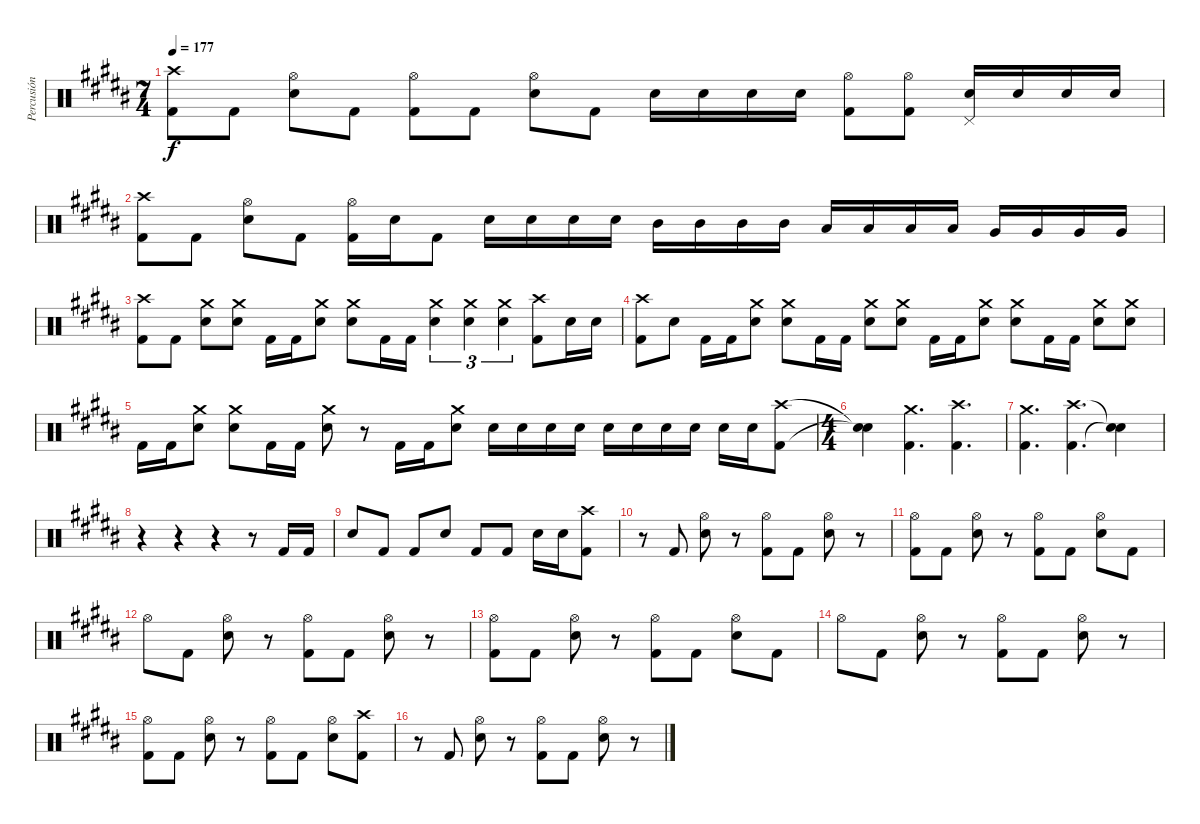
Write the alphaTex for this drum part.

\track ("Percusión" "Percusión") {instrument percussion}
\staff {score}
\articulation defaults
\ts (7 4)
\tempo 177
\clef neutral
\ks g#minor
("Kick (hit) 2" "Crash high (hit)").8{dy f} "Kick (hit) 2".8 ("Snare (hit) 2" "Hi-Hat (open)").8 "Kick (hit) 2".8 ("Kick (hit) 2" "Hi-Hat (open)").8 "Kick (hit) 2".8 ("Snare (hit) 2" "Hi-Hat (open)").8 "Kick (hit) 2".8 "Snare (hit) 2".16 "Snare (hit) 2".16 "Snare (hit) 2".16 "Snare (hit) 2".16 ("Kick (hit) 2" "Hi-Hat (open)").8 ("Kick (hit) 2" "Hi-Hat (open)").8 ("Snare (hit) 2" "Pedal Hi-Hat (hit)").16 "Snare (hit) 2".16 "Snare (hit) 2".16 "Snare (hit) 2".16 |
("Kick (hit) 2" "Crash high (hit)").8 "Kick (hit) 2".8 ("Snare (hit) 2" "Hi-Hat (open)").8 "Kick (hit) 2".8 ("Kick (hit) 2" "Hi-Hat (open)").16 "Snare (hit) 2".16 "Kick (hit) 2".8 "Snare (hit) 2".16 "Snare (hit) 2".16 "Snare (hit) 2".16 "Snare (hit) 2".16 "Mid Tom (hit)".16 "Mid Tom (hit)".16 "Mid Tom (hit)".16 "Mid Tom (hit)".16 "Low Tom (hit)".16 "Low Tom (hit)".16 "Low Tom (hit)".16 "Low Tom (hit)".16 "Very Low Tom (hit)".16 "Very Low Tom (hit)".16 "Very Low Tom (hit)".16 "Very Low Tom (hit)".16 |
("Kick (hit) 2" "Crash high (hit)").8 "Kick (hit) 2".8 ("Snare (hit) 2" "Crash medium (hit)").8 ("Snare (hit) 2" "Crash medium (hit)").8 "Kick (hit) 2".16 "Kick (hit) 2".16 ("Snare (hit) 2" "Crash medium (hit)").8 ("Snare (hit) 2" "Crash medium (hit)").8 "Kick (hit) 2".16 "Kick (hit) 2".16 ("Snare (hit) 2" "Crash medium (hit)").4{tu (3 2)} ("Snare (hit) 2" "Crash medium (hit)").4{tu (3 2)} ("Snare (hit) 2" "Crash medium (hit)").4{tu (3 2)} ("Kick (hit) 2" "Crash high (hit)").8 "Snare (hit) 2".16 "Snare (hit) 2".16 |
("Kick (hit) 2" "Crash high (hit)").8 "Snare (hit) 2".8 "Kick (hit) 2".16 "Kick (hit) 2".16 ("Snare (hit) 2" "Crash medium (hit)").8 ("Snare (hit) 2" "Crash medium (hit)").8 "Kick (hit) 2".16 "Kick (hit) 2".16 ("Snare (hit) 2" "Crash medium (hit)").8 ("Snare (hit) 2" "Crash medium (hit)").8 "Kick (hit) 2".16 "Kick (hit) 2".16 ("Snare (hit) 2" "Crash medium (hit)").8 ("Snare (hit) 2" "Crash medium (hit)").8 "Kick (hit) 2".16 "Kick (hit) 2".16 ("Snare (hit) 2" "Crash medium (hit)").8 ("Snare (hit) 2" "Crash medium (hit)").8 |
"Kick (hit) 2".16 "Kick (hit) 2".16 ("Snare (hit) 2" "Crash medium (hit)").8 ("Snare (hit) 2" "Crash medium (hit)").8 "Kick (hit) 2".16 "Kick (hit) 2".16 ("Snare (hit) 2" "Crash medium (hit)").8 r.8 "Kick (hit) 2".16 "Kick (hit) 2".16 ("Snare (hit) 2" "Crash medium (hit)").8 "Snare (hit) 2".16 "Snare (hit) 2".16 "Snare (hit) 2".16 "Snare (hit) 2".16 "Snare (hit) 2".16 "Snare (hit) 2".16 "Snare (hit) 2".16 "Snare (hit) 2".16 "Snare (hit) 2".16 "Snare (hit) 2".16 ("Kick (hit) 2" "Crash high (hit)").8 |
\ts (4 4)
("Snare (hit)"{t} "Snare (hit)"{t}).4 ("Kick (hit) 2" "Crash medium (hit)").4{d} ("Kick (hit) 2" "Crash high (hit)").4{d} |
("Kick (hit) 2" "Crash medium (hit)").4{d} ("Kick (hit) 2" "Crash high (hit)").4{d} ("Snare (hit)"{t} "Snare (hit)"{t}).4 |
r.4 r.4 r.4 r.8 "Kick (hit) 2".16 "Kick (hit) 2".16 |
"Snare (hit) 2".8 "Kick (hit) 2".8 "Kick (hit) 2".8 "Snare (hit) 2".8 "Kick (hit) 2".8 "Kick (hit) 2".8 "Snare (hit) 2".16 "Snare (hit) 2".16 ("Kick (hit) 2" "Crash high (hit)").8 |
r.8 "Kick (hit) 2".8 ("Snare (hit) 2" "Hi-Hat (open)").8 r.8 ("Kick (hit) 2" "Hi-Hat (open)").8 "Kick (hit) 2".8 ("Snare (hit) 2" "Hi-Hat (open)").8 r.8 |
("Kick (hit) 2" "Hi-Hat (open)").8 "Kick (hit) 2".8 ("Snare (hit) 2" "Hi-Hat (open)").8 r.8 ("Kick (hit) 2" "Hi-Hat (open)").8 "Kick (hit) 2".8 ("Snare (hit) 2" "Hi-Hat (open)").8 "Kick (hit) 2".8 |
"Hi-Hat (open)".8 "Kick (hit) 2".8 ("Snare (hit) 2" "Hi-Hat (open)").8 r.8 ("Kick (hit) 2" "Hi-Hat (open)").8 "Kick (hit) 2".8 ("Snare (hit) 2" "Hi-Hat (open)").8 r.8 |
("Kick (hit) 2" "Hi-Hat (open)").8 "Kick (hit) 2".8 ("Snare (hit) 2" "Hi-Hat (open)").8 r.8 ("Kick (hit) 2" "Hi-Hat (open)").8 "Kick (hit) 2".8 ("Snare (hit) 2" "Hi-Hat (open)").8 "Kick (hit) 2".8 |
"Hi-Hat (open)".8 "Kick (hit) 2".8 ("Snare (hit) 2" "Hi-Hat (open)").8 r.8 ("Kick (hit) 2" "Hi-Hat (open)").8 "Kick (hit) 2".8 ("Snare (hit) 2" "Hi-Hat (open)").8 r.8 |
("Kick (hit) 2" "Hi-Hat (open)").8 "Kick (hit) 2".8 ("Snare (hit) 2" "Hi-Hat (open)").8 r.8 ("Kick (hit) 2" "Hi-Hat (open)").8 "Kick (hit) 2".8 ("Snare (hit) 2" "Hi-Hat (open)").8 ("Kick (hit) 2" "Crash high (hit)").8 |
r.8 "Kick (hit) 2".8 ("Snare (hit) 2" "Hi-Hat (open)").8 r.8 ("Kick (hit) 2" "Hi-Hat (open)").8 "Kick (hit) 2".8 ("Snare (hit) 2" "Hi-Hat (open)").8 r.8
